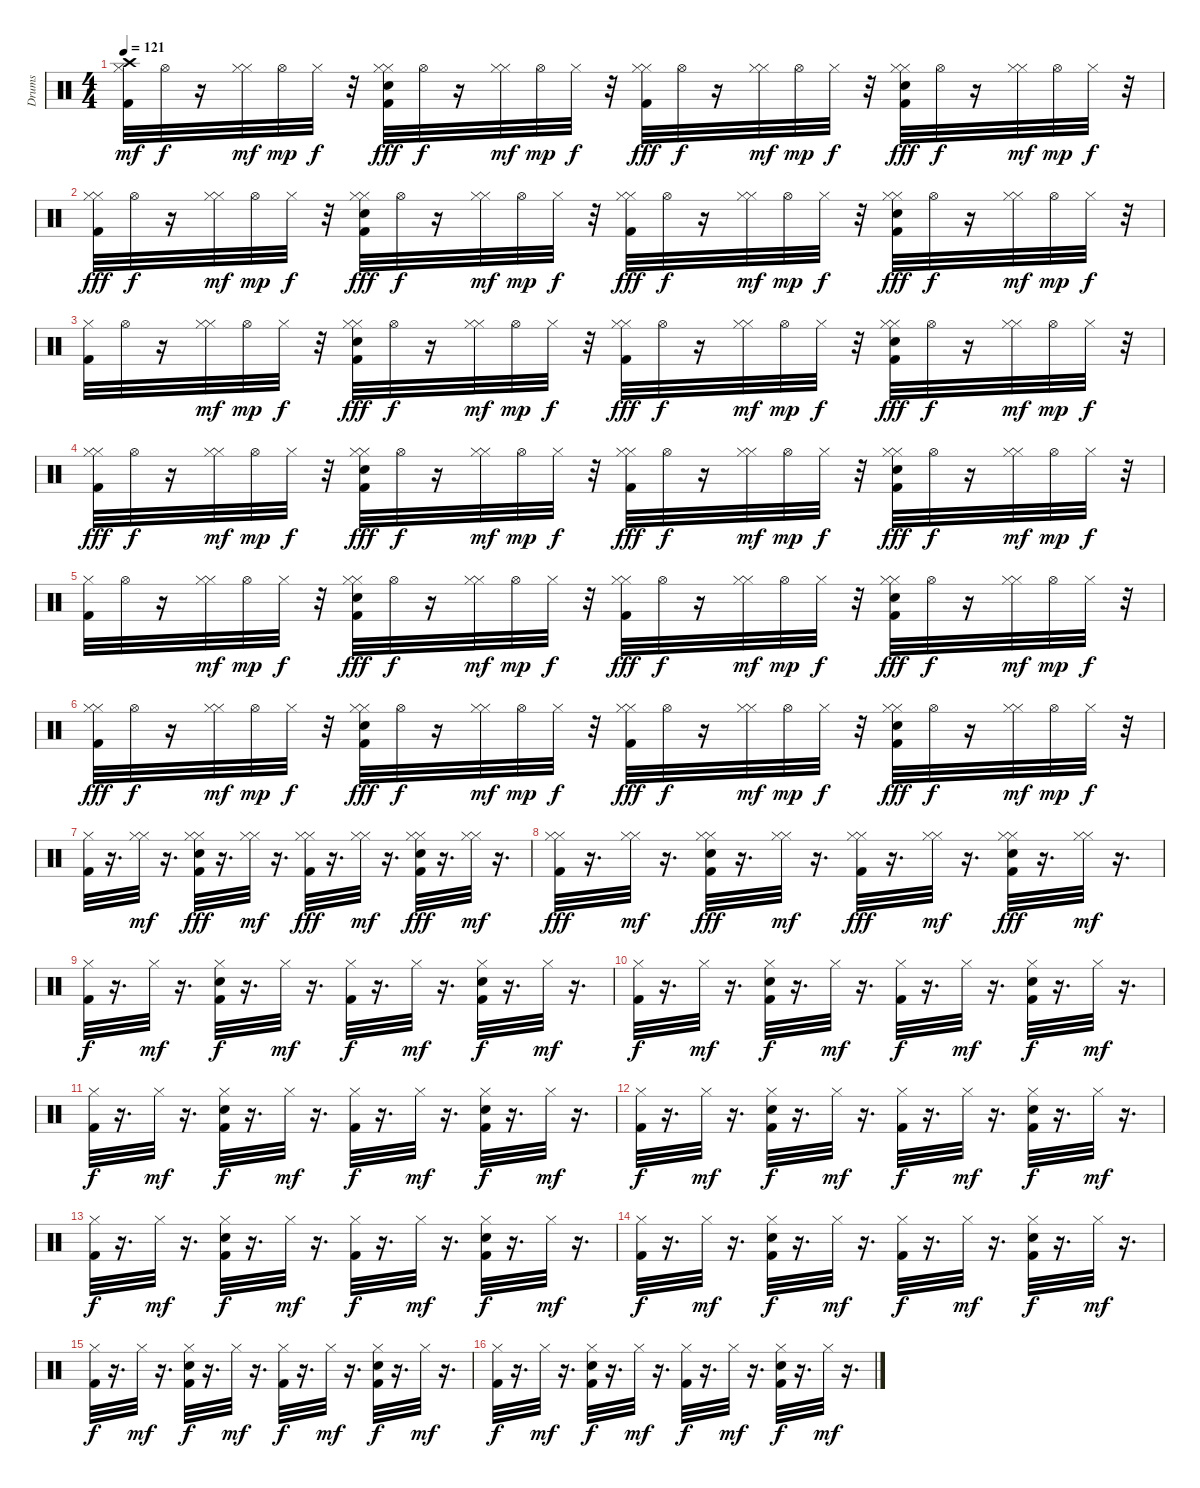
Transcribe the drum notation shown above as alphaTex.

\track ("Drums" "Drums") {instrument percussion}
\staff {score}
\articulation defaults
\ts (4 4)
\tempo 121
\clef neutral
\ks c
("Kick (hit) 2" "Hi-Hat (closed)" "Crash high (hit)").32{dy mf} "Hi-Hat (open)".32{dy f} r.16 ("Hi-Hat (closed)" "Hi-Hat (closed)").32{dy mf} "Hi-Hat (open)".32{dy mp} "Hi-Hat (closed)".32{dy f} r.32 ("Kick (hit) 2" "Hi-Hat (closed)" "Snare (hit) 2" "Hi-Hat (closed)").32{dy fff} "Hi-Hat (open)".32{dy f} r.16 ("Hi-Hat (closed)" "Hi-Hat (closed)").32{dy mf} "Hi-Hat (open)".32{dy mp} "Hi-Hat (closed)".32{dy f} r.32 ("Hi-Hat (closed)" "Kick (hit) 2" "Hi-Hat (closed)").32{dy fff} "Hi-Hat (open)".32{dy f} r.16 ("Hi-Hat (closed)" "Hi-Hat (closed)").32{dy mf} "Hi-Hat (open)".32{dy mp} "Hi-Hat (closed)".32{dy f} r.32 ("Kick (hit) 2" "Hi-Hat (closed)" "Snare (hit) 2" "Hi-Hat (closed)").32{dy fff} "Hi-Hat (open)".32{dy f} r.16 ("Hi-Hat (closed)" "Hi-Hat (closed)").32{dy mf} "Hi-Hat (open)".32{dy mp} "Hi-Hat (closed)".32{dy f} r.32 |
("Hi-Hat (closed)" "Kick (hit) 2" "Hi-Hat (closed)").32{dy fff} "Hi-Hat (open)".32{dy f} r.16 ("Hi-Hat (closed)" "Hi-Hat (closed)").32{dy mf} "Hi-Hat (open)".32{dy mp} "Hi-Hat (closed)".32{dy f} r.32 ("Kick (hit) 2" "Hi-Hat (closed)" "Snare (hit) 2" "Hi-Hat (closed)").32{dy fff} "Hi-Hat (open)".32{dy f} r.16 ("Hi-Hat (closed)" "Hi-Hat (closed)").32{dy mf} "Hi-Hat (open)".32{dy mp} "Hi-Hat (closed)".32{dy f} r.32 ("Hi-Hat (closed)" "Kick (hit) 2" "Hi-Hat (closed)").32{dy fff} "Hi-Hat (open)".32{dy f} r.16 ("Hi-Hat (closed)" "Hi-Hat (closed)").32{dy mf} "Hi-Hat (open)".32{dy mp} "Hi-Hat (closed)".32{dy f} r.32 ("Kick (hit) 2" "Hi-Hat (closed)" "Snare (hit) 2" "Hi-Hat (closed)").32{dy fff} "Hi-Hat (open)".32{dy f} r.16 ("Hi-Hat (closed)" "Hi-Hat (closed)").32{dy mf} "Hi-Hat (open)".32{dy mp} "Hi-Hat (closed)".32{dy f} r.32 |
("Kick (hit) 2" "Hi-Hat (closed)").32 "Hi-Hat (open)".32 r.16 ("Hi-Hat (closed)" "Hi-Hat (closed)").32{dy mf} "Hi-Hat (open)".32{dy mp} "Hi-Hat (closed)".32{dy f} r.32 ("Kick (hit) 2" "Hi-Hat (closed)" "Snare (hit) 2" "Hi-Hat (closed)").32{dy fff} "Hi-Hat (open)".32{dy f} r.16 ("Hi-Hat (closed)" "Hi-Hat (closed)").32{dy mf} "Hi-Hat (open)".32{dy mp} "Hi-Hat (closed)".32{dy f} r.32 ("Hi-Hat (closed)" "Kick (hit) 2" "Hi-Hat (closed)").32{dy fff} "Hi-Hat (open)".32{dy f} r.16 ("Hi-Hat (closed)" "Hi-Hat (closed)").32{dy mf} "Hi-Hat (open)".32{dy mp} "Hi-Hat (closed)".32{dy f} r.32 ("Kick (hit) 2" "Hi-Hat (closed)" "Snare (hit) 2" "Hi-Hat (closed)").32{dy fff} "Hi-Hat (open)".32{dy f} r.16 ("Hi-Hat (closed)" "Hi-Hat (closed)").32{dy mf} "Hi-Hat (open)".32{dy mp} "Hi-Hat (closed)".32{dy f} r.32 |
("Hi-Hat (closed)" "Kick (hit) 2" "Hi-Hat (closed)").32{dy fff} "Hi-Hat (open)".32{dy f} r.16 ("Hi-Hat (closed)" "Hi-Hat (closed)").32{dy mf} "Hi-Hat (open)".32{dy mp} "Hi-Hat (closed)".32{dy f} r.32 ("Kick (hit) 2" "Hi-Hat (closed)" "Snare (hit) 2" "Hi-Hat (closed)").32{dy fff} "Hi-Hat (open)".32{dy f} r.16 ("Hi-Hat (closed)" "Hi-Hat (closed)").32{dy mf} "Hi-Hat (open)".32{dy mp} "Hi-Hat (closed)".32{dy f} r.32 ("Hi-Hat (closed)" "Kick (hit) 2" "Hi-Hat (closed)").32{dy fff} "Hi-Hat (open)".32{dy f} r.16 ("Hi-Hat (closed)" "Hi-Hat (closed)").32{dy mf} "Hi-Hat (open)".32{dy mp} "Hi-Hat (closed)".32{dy f} r.32 ("Kick (hit) 2" "Hi-Hat (closed)" "Snare (hit) 2" "Hi-Hat (closed)").32{dy fff} "Hi-Hat (open)".32{dy f} r.16 ("Hi-Hat (closed)" "Hi-Hat (closed)").32{dy mf} "Hi-Hat (open)".32{dy mp} "Hi-Hat (closed)".32{dy f} r.32 |
("Kick (hit) 2" "Hi-Hat (closed)").32 "Hi-Hat (open)".32 r.16 ("Hi-Hat (closed)" "Hi-Hat (closed)").32{dy mf} "Hi-Hat (open)".32{dy mp} "Hi-Hat (closed)".32{dy f} r.32 ("Kick (hit) 2" "Hi-Hat (closed)" "Snare (hit) 2" "Hi-Hat (closed)").32{dy fff} "Hi-Hat (open)".32{dy f} r.16 ("Hi-Hat (closed)" "Hi-Hat (closed)").32{dy mf} "Hi-Hat (open)".32{dy mp} "Hi-Hat (closed)".32{dy f} r.32 ("Hi-Hat (closed)" "Kick (hit) 2" "Hi-Hat (closed)").32{dy fff} "Hi-Hat (open)".32{dy f} r.16 ("Hi-Hat (closed)" "Hi-Hat (closed)").32{dy mf} "Hi-Hat (open)".32{dy mp} "Hi-Hat (closed)".32{dy f} r.32 ("Kick (hit) 2" "Hi-Hat (closed)" "Snare (hit) 2" "Hi-Hat (closed)").32{dy fff} "Hi-Hat (open)".32{dy f} r.16 ("Hi-Hat (closed)" "Hi-Hat (closed)").32{dy mf} "Hi-Hat (open)".32{dy mp} "Hi-Hat (closed)".32{dy f} r.32 |
("Hi-Hat (closed)" "Kick (hit) 2" "Hi-Hat (closed)").32{dy fff} "Hi-Hat (open)".32{dy f} r.16 ("Hi-Hat (closed)" "Hi-Hat (closed)").32{dy mf} "Hi-Hat (open)".32{dy mp} "Hi-Hat (closed)".32{dy f} r.32 ("Kick (hit) 2" "Hi-Hat (closed)" "Snare (hit) 2" "Hi-Hat (closed)").32{dy fff} "Hi-Hat (open)".32{dy f} r.16 ("Hi-Hat (closed)" "Hi-Hat (closed)").32{dy mf} "Hi-Hat (open)".32{dy mp} "Hi-Hat (closed)".32{dy f} r.32 ("Hi-Hat (closed)" "Kick (hit) 2" "Hi-Hat (closed)").32{dy fff} "Hi-Hat (open)".32{dy f} r.16 ("Hi-Hat (closed)" "Hi-Hat (closed)").32{dy mf} "Hi-Hat (open)".32{dy mp} "Hi-Hat (closed)".32{dy f} r.32 ("Kick (hit) 2" "Hi-Hat (closed)" "Snare (hit) 2" "Hi-Hat (closed)").32{dy fff} "Hi-Hat (open)".32{dy f} r.16 ("Hi-Hat (closed)" "Hi-Hat (closed)").32{dy mf} "Hi-Hat (open)".32{dy mp} "Hi-Hat (closed)".32{dy f} r.32 |
("Kick (hit) 2" "Hi-Hat (closed)").32 r.16{d} ("Hi-Hat (closed)" "Hi-Hat (closed)").32{dy mf} r.16{d} ("Kick (hit) 2" "Hi-Hat (closed)" "Snare (hit) 2" "Hi-Hat (closed)").32{dy fff} r.16{d} ("Hi-Hat (closed)" "Hi-Hat (closed)").32{dy mf} r.16{d} ("Hi-Hat (closed)" "Kick (hit) 2" "Hi-Hat (closed)").32{dy fff} r.16{d} ("Hi-Hat (closed)" "Hi-Hat (closed)").32{dy mf} r.16{d} ("Kick (hit) 2" "Hi-Hat (closed)" "Snare (hit) 2" "Hi-Hat (closed)").32{dy fff} r.16{d} ("Hi-Hat (closed)" "Hi-Hat (closed)").32{dy mf} r.16{d} |
("Hi-Hat (closed)" "Kick (hit) 2" "Hi-Hat (closed)").32{dy fff} r.16{d} ("Hi-Hat (closed)" "Hi-Hat (closed)").32{dy mf} r.16{d} ("Kick (hit) 2" "Hi-Hat (closed)" "Snare (hit) 2" "Hi-Hat (closed)").32{dy fff} r.16{d} ("Hi-Hat (closed)" "Hi-Hat (closed)").32{dy mf} r.16{d} ("Hi-Hat (closed)" "Kick (hit) 2" "Hi-Hat (closed)").32{dy fff} r.16{d} ("Hi-Hat (closed)" "Hi-Hat (closed)").32{dy mf} r.16{d} ("Kick (hit) 2" "Hi-Hat (closed)" "Snare (hit) 2" "Hi-Hat (closed)").32{dy fff} r.16{d} ("Hi-Hat (closed)" "Hi-Hat (closed)").32{dy mf} r.16{d} |
("Kick (hit) 2" "Hi-Hat (closed)").32{dy f} r.16{d} "Hi-Hat (closed)".32{dy mf} r.16{d} ("Kick (hit) 2" "Hi-Hat (closed)" "Snare (hit) 2").32{dy f} r.16{d} "Hi-Hat (closed)".32{dy mf} r.16{d} ("Hi-Hat (closed)" "Kick (hit) 2").32{dy f} r.16{d} "Hi-Hat (closed)".32{dy mf} r.16{d} ("Kick (hit) 2" "Hi-Hat (closed)" "Snare (hit) 2").32{dy f} r.16{d} "Hi-Hat (closed)".32{dy mf} r.16{d} |
("Hi-Hat (closed)" "Kick (hit) 2").32{dy f} r.16{d} "Hi-Hat (closed)".32{dy mf} r.16{d} ("Kick (hit) 2" "Hi-Hat (closed)" "Snare (hit) 2").32{dy f} r.16{d} "Hi-Hat (closed)".32{dy mf} r.16{d} ("Hi-Hat (closed)" "Kick (hit) 2").32{dy f} r.16{d} "Hi-Hat (closed)".32{dy mf} r.16{d} ("Kick (hit) 2" "Hi-Hat (closed)" "Snare (hit) 2").32{dy f} r.16{d} "Hi-Hat (closed)".32{dy mf} r.16{d} |
("Kick (hit) 2" "Hi-Hat (closed)").32{dy f} r.16{d} "Hi-Hat (closed)".32{dy mf} r.16{d} ("Kick (hit) 2" "Hi-Hat (closed)" "Snare (hit) 2").32{dy f} r.16{d} "Hi-Hat (closed)".32{dy mf} r.16{d} ("Hi-Hat (closed)" "Kick (hit) 2").32{dy f} r.16{d} "Hi-Hat (closed)".32{dy mf} r.16{d} ("Kick (hit) 2" "Hi-Hat (closed)" "Snare (hit) 2").32{dy f} r.16{d} "Hi-Hat (closed)".32{dy mf} r.16{d} |
("Hi-Hat (closed)" "Kick (hit) 2").32{dy f} r.16{d} "Hi-Hat (closed)".32{dy mf} r.16{d} ("Kick (hit) 2" "Hi-Hat (closed)" "Snare (hit) 2").32{dy f} r.16{d} "Hi-Hat (closed)".32{dy mf} r.16{d} ("Hi-Hat (closed)" "Kick (hit) 2").32{dy f} r.16{d} "Hi-Hat (closed)".32{dy mf} r.16{d} ("Kick (hit) 2" "Hi-Hat (closed)" "Snare (hit) 2").32{dy f} r.16{d} "Hi-Hat (closed)".32{dy mf} r.16{d} |
("Kick (hit) 2" "Hi-Hat (closed)").32{dy f} r.16{d} "Hi-Hat (closed)".32{dy mf} r.16{d} ("Kick (hit) 2" "Hi-Hat (closed)" "Snare (hit) 2").32{dy f} r.16{d} "Hi-Hat (closed)".32{dy mf} r.16{d} ("Hi-Hat (closed)" "Kick (hit) 2").32{dy f} r.16{d} "Hi-Hat (closed)".32{dy mf} r.16{d} ("Kick (hit) 2" "Hi-Hat (closed)" "Snare (hit) 2").32{dy f} r.16{d} "Hi-Hat (closed)".32{dy mf} r.16{d} |
("Hi-Hat (closed)" "Kick (hit) 2").32{dy f} r.16{d} "Hi-Hat (closed)".32{dy mf} r.16{d} ("Kick (hit) 2" "Hi-Hat (closed)" "Snare (hit) 2").32{dy f} r.16{d} "Hi-Hat (closed)".32{dy mf} r.16{d} ("Hi-Hat (closed)" "Kick (hit) 2").32{dy f} r.16{d} "Hi-Hat (closed)".32{dy mf} r.16{d} ("Kick (hit) 2" "Hi-Hat (closed)" "Snare (hit) 2").32{dy f} r.16{d} "Hi-Hat (closed)".32{dy mf} r.16{d} |
("Kick (hit) 2" "Hi-Hat (closed)").32{dy f} r.16{d} "Hi-Hat (closed)".32{dy mf} r.16{d} ("Kick (hit) 2" "Hi-Hat (closed)" "Snare (hit) 2").32{dy f} r.16{d} "Hi-Hat (closed)".32{dy mf} r.16{d} ("Hi-Hat (closed)" "Kick (hit) 2").32{dy f} r.16{d} "Hi-Hat (closed)".32{dy mf} r.16{d} ("Kick (hit) 2" "Hi-Hat (closed)" "Snare (hit) 2").32{dy f} r.16{d} "Hi-Hat (closed)".32{dy mf} r.16{d} |
("Hi-Hat (closed)" "Kick (hit) 2").32{dy f} r.16{d} "Hi-Hat (closed)".32{dy mf} r.16{d} ("Kick (hit) 2" "Hi-Hat (closed)" "Snare (hit) 2").32{dy f} r.16{d} "Hi-Hat (closed)".32{dy mf} r.16{d} ("Hi-Hat (closed)" "Kick (hit) 2").32{dy f} r.16{d} "Hi-Hat (closed)".32{dy mf} r.16{d} ("Kick (hit) 2" "Hi-Hat (closed)" "Snare (hit) 2").32{dy f} r.16{d} "Hi-Hat (closed)".32{dy mf} r.16{d}
